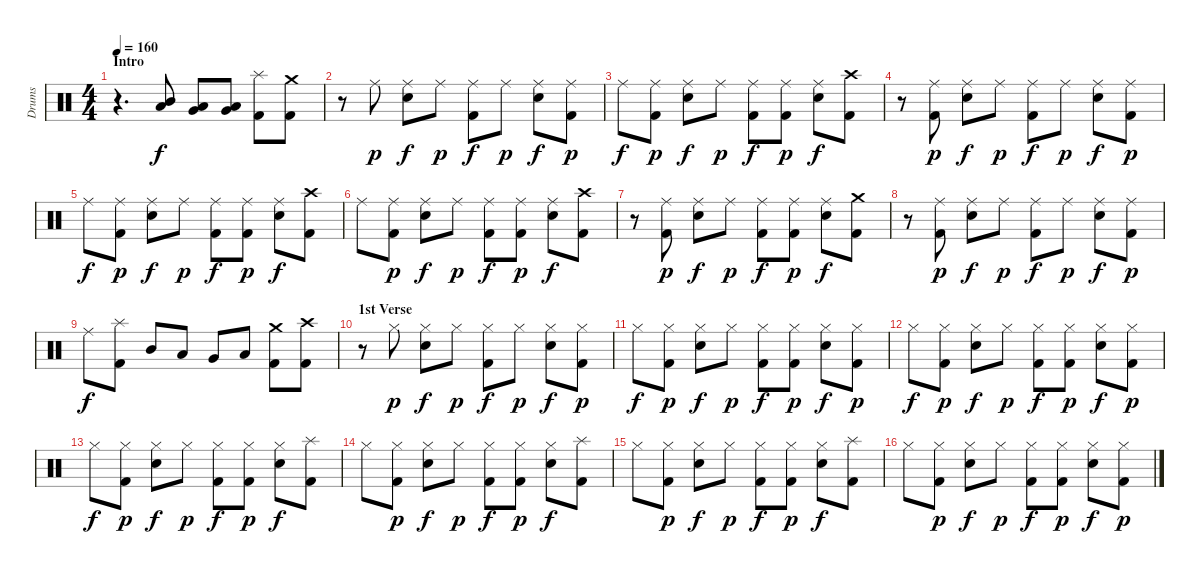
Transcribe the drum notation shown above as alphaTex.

\track ("Drums" "Drums") {instrument percussion}
\staff {score}
\articulation defaults
\ts (4 4)
\section ("" "Intro")
\tempo 160
\clef neutral
\ks c
r.4{d dy f} ("Mid Tom (hit)" "Low Tom (hit)").8 ("Low Tom (hit)" "Very Low Tom (hit)").8 ("Very Low Tom (hit)" "Low Floor Tom (hit)").8 ("Splash (hit)" "Kick (hit) 2").8 ("Crash medium (hit)" "Kick (hit) 2").8 |
r.8 "Ride (middle)".8{dy p} ("Ride (middle)" "Snare (hit) 2").8{dy f} "Ride (middle)".8{dy p} ("Ride (middle)" "Kick (hit) 2").8{dy f} "Ride (middle)".8{dy p} ("Ride (middle)" "Snare (hit) 2").8{dy f} ("Ride (middle)" "Kick (hit) 2").8{dy p} |
"Ride (middle)".8{dy f} ("Ride (middle)" "Kick (hit) 2").8{dy p} ("Ride (middle)" "Snare (hit) 2").8{dy f} "Ride (middle)".8{dy p} ("Ride (middle)" "Kick (hit) 2").8{dy f} ("Ride (middle)" "Kick (hit) 2").8{dy p} ("Ride (middle)" "Snare (hit) 2").8{dy f} ("Crash high (hit)" "Kick (hit) 2").8 |
r.8 ("Ride (middle)" "Kick (hit) 2").8{dy p} ("Ride (middle)" "Snare (hit) 2").8{dy f} "Ride (middle)".8{dy p} ("Ride (middle)" "Kick (hit) 2").8{dy f} "Ride (middle)".8{dy p} ("Ride (middle)" "Snare (hit) 2").8{dy f} ("Ride (middle)" "Kick (hit) 2").8{dy p} |
"Ride (middle)".8{dy f} ("Ride (middle)" "Kick (hit) 2").8{dy p} ("Ride (middle)" "Snare (hit) 2").8{dy f} "Ride (middle)".8{dy p} ("Ride (middle)" "Kick (hit) 2").8{dy f} ("Ride (middle)" "Kick (hit) 2").8{dy p} ("Ride (middle)" "Snare (hit) 2").8{dy f} ("Crash high (hit)" "Kick (hit) 2").8 |
"Ride (middle)".8 ("Ride (middle)" "Kick (hit) 2").8{dy p} ("Ride (middle)" "Snare (hit) 2").8{dy f} "Ride (middle)".8{dy p} ("Ride (middle)" "Kick (hit) 2").8{dy f} ("Ride (middle)" "Kick (hit) 2").8{dy p} ("Ride (middle)" "Snare (hit) 2").8{dy f} ("Crash high (hit)" "Kick (hit) 2").8 |
r.8 ("Ride (middle)" "Kick (hit) 2").8{dy p} ("Ride (middle)" "Snare (hit) 2").8{dy f} "Ride (middle)".8{dy p} ("Ride (middle)" "Kick (hit) 2").8{dy f} ("Ride (middle)" "Kick (hit) 2").8{dy p} ("Ride (middle)" "Snare (hit) 2").8{dy f} ("Crash medium (hit)" "Kick (hit) 2").8 |
r.8 ("Ride (middle)" "Kick (hit) 2").8{dy p} ("Ride (middle)" "Snare (hit) 2").8{dy f} "Ride (middle)".8{dy p} ("Ride (middle)" "Kick (hit) 2").8{dy f} "Ride (middle)".8{dy p} ("Ride (middle)" "Snare (hit) 2").8{dy f} ("Ride (middle)" "Kick (hit) 2").8{dy p} |
"Ride (middle)".8{dy f} ("Splash (hit)" "Kick (hit) 2").8 "Mid Tom (hit)".8 "Low Tom (hit)".8 "Very Low Tom (hit)".8 "Low Floor Tom (hit)".8 ("Crash medium (hit)" "Kick (hit) 2").8 ("Crash high (hit)" "Kick (hit) 2").8 |
\section ("" "1st Verse")
r.8 "Hi-Hat (closed)".8{dy p} ("Hi-Hat (closed)" "Snare (hit) 2").8{dy f} "Hi-Hat (closed)".8{dy p} ("Hi-Hat (closed)" "Kick (hit) 2").8{dy f} "Hi-Hat (closed)".8{dy p} ("Hi-Hat (closed)" "Snare (hit) 2").8{dy f} ("Hi-Hat (closed)" "Kick (hit) 2").8{dy p} |
"Hi-Hat (closed)".8{dy f} ("Hi-Hat (closed)" "Kick (hit) 2").8{dy p} ("Hi-Hat (closed)" "Snare (hit) 2").8{dy f} "Hi-Hat (closed)".8{dy p} ("Hi-Hat (closed)" "Kick (hit) 2").8{dy f} ("Hi-Hat (closed)" "Kick (hit) 2").8{dy p} ("Hi-Hat (closed)" "Snare (hit) 2").8{dy f} ("Hi-Hat (closed)" "Kick (hit) 2").8{dy p} |
"Hi-Hat (closed)".8{dy f} ("Hi-Hat (closed)" "Kick (hit) 2").8{dy p} ("Hi-Hat (closed)" "Snare (hit) 2").8{dy f} "Hi-Hat (closed)".8{dy p} ("Hi-Hat (closed)" "Kick (hit) 2").8{dy f} ("Hi-Hat (closed)" "Kick (hit) 2").8{dy p} ("Hi-Hat (closed)" "Snare (hit) 2").8{dy f} ("Hi-Hat (closed)" "Kick (hit) 2").8{dy p} |
"Hi-Hat (closed)".8{dy f} ("Hi-Hat (closed)" "Kick (hit) 2").8{dy p} ("Hi-Hat (closed)" "Snare (hit) 2").8{dy f} "Hi-Hat (closed)".8{dy p} ("Hi-Hat (closed)" "Kick (hit) 2").8{dy f} ("Hi-Hat (closed)" "Kick (hit) 2").8{dy p} ("Hi-Hat (closed)" "Snare (hit) 2").8{dy f} ("Splash (hit)" "Kick (hit) 2").8 |
"Hi-Hat (closed)".8 ("Hi-Hat (closed)" "Kick (hit) 2").8{dy p} ("Hi-Hat (closed)" "Snare (hit) 2").8{dy f} "Hi-Hat (closed)".8{dy p} ("Hi-Hat (closed)" "Kick (hit) 2").8{dy f} ("Hi-Hat (closed)" "Kick (hit) 2").8{dy p} ("Hi-Hat (closed)" "Snare (hit) 2").8{dy f} ("Splash (hit)" "Kick (hit) 2").8 |
"Hi-Hat (closed)".8 ("Hi-Hat (closed)" "Kick (hit) 2").8{dy p} ("Hi-Hat (closed)" "Snare (hit) 2").8{dy f} "Hi-Hat (closed)".8{dy p} ("Hi-Hat (closed)" "Kick (hit) 2").8{dy f} ("Hi-Hat (closed)" "Kick (hit) 2").8{dy p} ("Hi-Hat (closed)" "Snare (hit) 2").8{dy f} ("Splash (hit)" "Kick (hit) 2").8 |
"Hi-Hat (closed)".8 ("Hi-Hat (closed)" "Kick (hit) 2").8{dy p} ("Hi-Hat (closed)" "Snare (hit) 2").8{dy f} "Hi-Hat (closed)".8{dy p} ("Hi-Hat (closed)" "Kick (hit) 2").8{dy f} ("Hi-Hat (closed)" "Kick (hit) 2").8{dy p} ("Hi-Hat (closed)" "Snare (hit) 2").8{dy f} ("Hi-Hat (closed)" "Kick (hit) 2").8{dy p}
